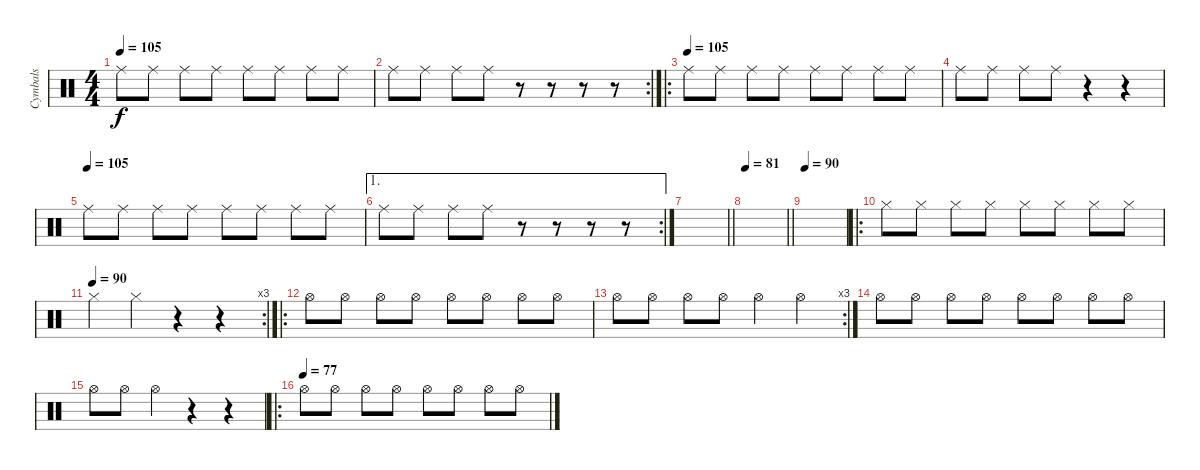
\track ("Cymbals" "Cymbals") {instrument percussion}
\staff {score}
\articulation defaults
\ts (4 4)
\tempo 105
\clef neutral
\ks c "Ride (middle)".8{dy f} "Ride (middle)".8 "Ride (middle)".8 "Ride (middle)".8 "Ride (middle)".8 "Ride (middle)".8 "Ride (middle)".8 "Ride (middle)".8
|
\rc 2 "Ride (middle)".8 "Ride (middle)".8 "Ride (middle)".8 "Ride (middle)".8
r.8 r.8 r.8 r.8 |
\ro
\tempo (105)
"Ride (middle)".8 "Ride (middle)".8 "Ride (middle)".8 "Ride (middle)".8 "Ride (middle)".8 "Ride (middle)".8 "Ride (middle)".8 "Ride (middle)".8 |
"Ride (middle)".8 "Ride (middle)".8 "Ride (middle)".8 "Ride (middle)".8 r.4 r.4 |
\tempo (105)
"Ride (middle)".8 "Ride (middle)".8 "Ride (middle)".8 "Ride (middle)".8 "Ride (middle)".8 "Ride (middle)".8 "Ride (middle)".8 "Ride (middle)".8 |
\ae 1
\rc 2 "Ride (middle)".8 "Ride (middle)".8 "Ride (middle)".8 "Ride (middle)".8
r.8 r.8 r.8 r.8 |
\barLineRight lightlight
|
\tempo 81
\barLineRight lightlight
|
\tempo 90
|
\ro "Hi-Hat (closed)".8 "Hi-Hat (closed)".8 "Hi-Hat (closed)".8 "Hi-Hat (closed)".8 "Hi-Hat (closed)".8 "Hi-Hat (closed)".8 "Hi-Hat (closed)".8 "Hi-Hat (closed)".8
|
\rc 3
\tempo (90)
"Hi-Hat (closed)".4 "Hi-Hat (closed)".4 r.4 r.4 |
\ro "Hi-Hat (open)".8 "Hi-Hat (open)".8 "Hi-Hat (open)".8 "Hi-Hat (open)".8 "Hi-Hat (open)".8 "Hi-Hat (open)".8 "Hi-Hat (open)".8 "Hi-Hat (open)".8
|
\rc 3 "Hi-Hat (open)".8 "Hi-Hat (open)".8 "Hi-Hat (open)".8 "Hi-Hat (open)".8 "Hi-Hat (open)".4 "Hi-Hat (open)".4
|
"Hi-Hat (open)".8 "Hi-Hat (open)".8 "Hi-Hat (open)".8 "Hi-Hat (open)".8 "Hi-Hat (open)".8 "Hi-Hat (open)".8 "Hi-Hat (open)".8 "Hi-Hat (open)".8 |
"Hi-Hat (open)".8 "Hi-Hat (open)".8 "Hi-Hat (open)".4 r.4 r.4 |
\ro
\tempo (77)
"Hi-Hat (open)".8 "Hi-Hat (open)".8 "Hi-Hat (open)".8 "Hi-Hat (open)".8 "Hi-Hat (open)".8 "Hi-Hat (open)".8 "Hi-Hat (open)".8 "Hi-Hat (open)".8
